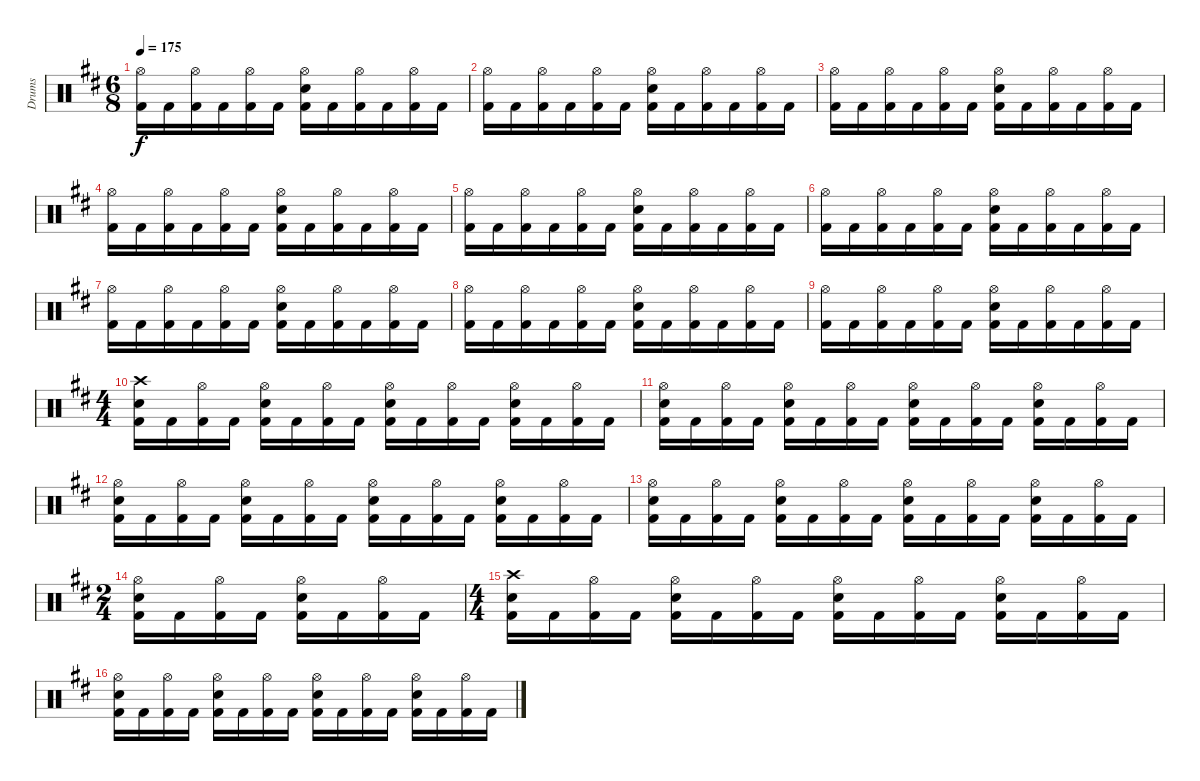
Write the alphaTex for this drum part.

\track ("Drums" "Drums") {instrument percussion}
\staff {score}
\articulation defaults
\ts (6 8)
\tempo 175
\clef neutral
\ks bminor
("Kick (hit) 2" "Hi-Hat (open)").16{dy f} "Kick (hit) 2".16 ("Kick (hit) 2" "Hi-Hat (open)").16 "Kick (hit) 2".16 ("Kick (hit) 2" "Hi-Hat (open)").16 "Kick (hit) 2".16 ("Kick (hit) 2" "Electric Snare (hit)" "Hi-Hat (open)").16 "Kick (hit) 2".16 ("Kick (hit) 2" "Hi-Hat (open)").16 "Kick (hit) 2".16 ("Kick (hit) 2" "Hi-Hat (open)").16 "Kick (hit) 2".16 |
("Kick (hit) 2" "Hi-Hat (open)").16 "Kick (hit) 2".16 ("Kick (hit) 2" "Hi-Hat (open)").16 "Kick (hit) 2".16 ("Kick (hit) 2" "Hi-Hat (open)").16 "Kick (hit) 2".16 ("Kick (hit) 2" "Electric Snare (hit)" "Hi-Hat (open)").16 "Kick (hit) 2".16 ("Kick (hit) 2" "Hi-Hat (open)").16 "Kick (hit) 2".16 ("Kick (hit) 2" "Hi-Hat (open)").16 "Kick (hit) 2".16 |
("Kick (hit) 2" "Hi-Hat (open)").16 "Kick (hit) 2".16 ("Kick (hit) 2" "Hi-Hat (open)").16 "Kick (hit) 2".16 ("Kick (hit) 2" "Hi-Hat (open)").16 "Kick (hit) 2".16 ("Kick (hit) 2" "Electric Snare (hit)" "Hi-Hat (open)").16 "Kick (hit) 2".16 ("Kick (hit) 2" "Hi-Hat (open)").16 "Kick (hit) 2".16 ("Kick (hit) 2" "Hi-Hat (open)").16 "Kick (hit) 2".16 |
("Kick (hit) 2" "Hi-Hat (open)").16 "Kick (hit) 2".16 ("Kick (hit) 2" "Hi-Hat (open)").16 "Kick (hit) 2".16 ("Kick (hit) 2" "Hi-Hat (open)").16 "Kick (hit) 2".16 ("Kick (hit) 2" "Electric Snare (hit)" "Hi-Hat (open)").16 "Kick (hit) 2".16 ("Kick (hit) 2" "Hi-Hat (open)").16 "Kick (hit) 2".16 ("Kick (hit) 2" "Hi-Hat (open)").16 "Kick (hit) 2".16 |
("Kick (hit) 2" "Hi-Hat (open)").16 "Kick (hit) 2".16 ("Kick (hit) 2" "Hi-Hat (open)").16 "Kick (hit) 2".16 ("Kick (hit) 2" "Hi-Hat (open)").16 "Kick (hit) 2".16 ("Kick (hit) 2" "Electric Snare (hit)" "Hi-Hat (open)").16 "Kick (hit) 2".16 ("Kick (hit) 2" "Hi-Hat (open)").16 "Kick (hit) 2".16 ("Kick (hit) 2" "Hi-Hat (open)").16 "Kick (hit) 2".16 |
("Kick (hit) 2" "Hi-Hat (open)").16 "Kick (hit) 2".16 ("Kick (hit) 2" "Hi-Hat (open)").16 "Kick (hit) 2".16 ("Kick (hit) 2" "Hi-Hat (open)").16 "Kick (hit) 2".16 ("Kick (hit) 2" "Electric Snare (hit)" "Hi-Hat (open)").16 "Kick (hit) 2".16 ("Kick (hit) 2" "Hi-Hat (open)").16 "Kick (hit) 2".16 ("Kick (hit) 2" "Hi-Hat (open)").16 "Kick (hit) 2".16 |
("Kick (hit) 2" "Hi-Hat (open)").16 "Kick (hit) 2".16 ("Kick (hit) 2" "Hi-Hat (open)").16 "Kick (hit) 2".16 ("Kick (hit) 2" "Hi-Hat (open)").16 "Kick (hit) 2".16 ("Kick (hit) 2" "Electric Snare (hit)" "Hi-Hat (open)").16 "Kick (hit) 2".16 ("Kick (hit) 2" "Hi-Hat (open)").16 "Kick (hit) 2".16 ("Kick (hit) 2" "Hi-Hat (open)").16 "Kick (hit) 2".16 |
("Kick (hit) 2" "Hi-Hat (open)").16 "Kick (hit) 2".16 ("Kick (hit) 2" "Hi-Hat (open)").16 "Kick (hit) 2".16 ("Kick (hit) 2" "Hi-Hat (open)").16 "Kick (hit) 2".16 ("Kick (hit) 2" "Electric Snare (hit)" "Hi-Hat (open)").16 "Kick (hit) 2".16 ("Kick (hit) 2" "Hi-Hat (open)").16 "Kick (hit) 2".16 ("Kick (hit) 2" "Hi-Hat (open)").16 "Kick (hit) 2".16 |
("Kick (hit) 2" "Hi-Hat (open)").16 "Kick (hit) 2".16 ("Kick (hit) 2" "Hi-Hat (open)").16 "Kick (hit) 2".16 ("Kick (hit) 2" "Hi-Hat (open)").16 "Kick (hit) 2".16 ("Kick (hit) 2" "Electric Snare (hit)" "Hi-Hat (open)").16 "Kick (hit) 2".16 ("Kick (hit) 2" "Hi-Hat (open)").16 "Kick (hit) 2".16 ("Kick (hit) 2" "Hi-Hat (open)").16 "Kick (hit) 2".16 |
\ts (4 4)
("Kick (hit) 2" "Electric Snare (hit)" "Crash high (hit)").16 "Kick (hit) 2".16 ("Kick (hit) 2" "Hi-Hat (open)").16 "Kick (hit) 2".16 ("Kick (hit) 2" "Electric Snare (hit)" "Hi-Hat (open)").16 "Kick (hit) 2".16 ("Kick (hit) 2" "Hi-Hat (open)").16 "Kick (hit) 2".16 ("Kick (hit) 2" "Electric Snare (hit)" "Hi-Hat (open)").16 "Kick (hit) 2".16 ("Kick (hit) 2" "Hi-Hat (open)").16 "Kick (hit) 2".16 ("Kick (hit) 2" "Electric Snare (hit)" "Hi-Hat (open)").16 "Kick (hit) 2".16 ("Kick (hit) 2" "Hi-Hat (open)").16 "Kick (hit) 2".16 |
("Kick (hit) 2" "Electric Snare (hit)" "Hi-Hat (open)").16 "Kick (hit) 2".16 ("Kick (hit) 2" "Hi-Hat (open)").16 "Kick (hit) 2".16 ("Kick (hit) 2" "Electric Snare (hit)" "Hi-Hat (open)").16 "Kick (hit) 2".16 ("Kick (hit) 2" "Hi-Hat (open)").16 "Kick (hit) 2".16 ("Kick (hit) 2" "Electric Snare (hit)" "Hi-Hat (open)").16 "Kick (hit) 2".16 ("Kick (hit) 2" "Hi-Hat (open)").16 "Kick (hit) 2".16 ("Kick (hit) 2" "Electric Snare (hit)" "Hi-Hat (open)").16 "Kick (hit) 2".16 ("Kick (hit) 2" "Hi-Hat (open)").16 "Kick (hit) 2".16 |
("Kick (hit) 2" "Electric Snare (hit)" "Hi-Hat (open)").16 "Kick (hit) 2".16 ("Kick (hit) 2" "Hi-Hat (open)").16 "Kick (hit) 2".16 ("Kick (hit) 2" "Electric Snare (hit)" "Hi-Hat (open)").16 "Kick (hit) 2".16 ("Kick (hit) 2" "Hi-Hat (open)").16 "Kick (hit) 2".16 ("Kick (hit) 2" "Electric Snare (hit)" "Hi-Hat (open)").16 "Kick (hit) 2".16 ("Kick (hit) 2" "Hi-Hat (open)").16 "Kick (hit) 2".16 ("Kick (hit) 2" "Electric Snare (hit)" "Hi-Hat (open)").16 "Kick (hit) 2".16 ("Kick (hit) 2" "Hi-Hat (open)").16 "Kick (hit) 2".16 |
("Kick (hit) 2" "Electric Snare (hit)" "Hi-Hat (open)").16 "Kick (hit) 2".16 ("Kick (hit) 2" "Hi-Hat (open)").16 "Kick (hit) 2".16 ("Kick (hit) 2" "Electric Snare (hit)" "Hi-Hat (open)").16 "Kick (hit) 2".16 ("Kick (hit) 2" "Hi-Hat (open)").16 "Kick (hit) 2".16 ("Kick (hit) 2" "Electric Snare (hit)" "Hi-Hat (open)").16 "Kick (hit) 2".16 ("Kick (hit) 2" "Hi-Hat (open)").16 "Kick (hit) 2".16 ("Kick (hit) 2" "Electric Snare (hit)" "Hi-Hat (open)").16 "Kick (hit) 2".16 ("Kick (hit) 2" "Hi-Hat (open)").16 "Kick (hit) 2".16 |
\ts (2 4)
("Kick (hit) 2" "Electric Snare (hit)" "Hi-Hat (open)").16 "Kick (hit) 2".16 ("Kick (hit) 2" "Hi-Hat (open)").16 "Kick (hit) 2".16 ("Kick (hit) 2" "Electric Snare (hit)" "Hi-Hat (open)").16 "Kick (hit) 2".16 ("Kick (hit) 2" "Hi-Hat (open)").16 "Kick (hit) 2".16 |
\ts (4 4)
("Kick (hit) 2" "Electric Snare (hit)" "Crash high (hit)").16 "Kick (hit) 2".16 ("Kick (hit) 2" "Hi-Hat (open)").16 "Kick (hit) 2".16 ("Kick (hit) 2" "Electric Snare (hit)" "Hi-Hat (open)").16 "Kick (hit) 2".16 ("Kick (hit) 2" "Hi-Hat (open)").16 "Kick (hit) 2".16 ("Kick (hit) 2" "Electric Snare (hit)" "Hi-Hat (open)").16 "Kick (hit) 2".16 ("Kick (hit) 2" "Hi-Hat (open)").16 "Kick (hit) 2".16 ("Kick (hit) 2" "Electric Snare (hit)" "Hi-Hat (open)").16 "Kick (hit) 2".16 ("Kick (hit) 2" "Hi-Hat (open)").16 "Kick (hit) 2".16 |
("Kick (hit) 2" "Electric Snare (hit)" "Hi-Hat (open)").16 "Kick (hit) 2".16 ("Kick (hit) 2" "Hi-Hat (open)").16 "Kick (hit) 2".16 ("Kick (hit) 2" "Electric Snare (hit)" "Hi-Hat (open)").16 "Kick (hit) 2".16 ("Kick (hit) 2" "Hi-Hat (open)").16 "Kick (hit) 2".16 ("Kick (hit) 2" "Electric Snare (hit)" "Hi-Hat (open)").16 "Kick (hit) 2".16 ("Kick (hit) 2" "Hi-Hat (open)").16 "Kick (hit) 2".16 ("Kick (hit) 2" "Electric Snare (hit)" "Hi-Hat (open)").16 "Kick (hit) 2".16 ("Kick (hit) 2" "Hi-Hat (open)").16 "Kick (hit) 2".16
